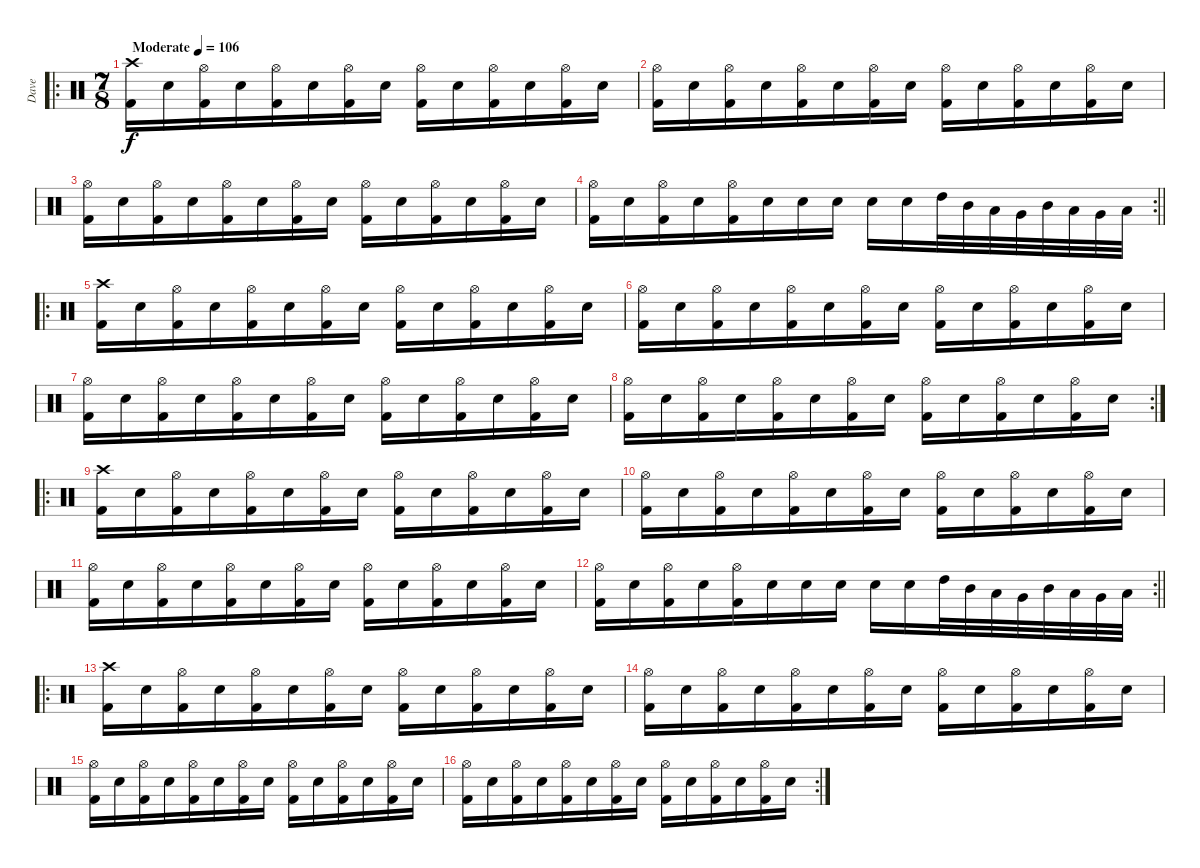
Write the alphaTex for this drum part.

\track ("Dave" "Dave") {instrument percussion}
\staff {score}
\articulation defaults
\ro
\ts (7 8)
\tempo (106 "Moderate")
\clef neutral
\ks c
("Crash high (hit)" "Kick (hit) 2").16{dy f} "Electric Snare (hit)".16 ("Hi-Hat (open)" "Kick (hit) 2").16 "Electric Snare (hit)".16 ("Hi-Hat (open)" "Kick (hit) 2").16 "Electric Snare (hit)".16 ("Hi-Hat (open)" "Kick (hit) 2").16 "Electric Snare (hit)".16 ("Hi-Hat (open)" "Kick (hit) 2").16 "Electric Snare (hit)".16 ("Hi-Hat (open)" "Kick (hit) 2").16 "Electric Snare (hit)".16 ("Hi-Hat (open)" "Kick (hit) 2").16 "Electric Snare (hit)".16 |
("Hi-Hat (open)" "Kick (hit) 2").16 "Electric Snare (hit)".16 ("Hi-Hat (open)" "Kick (hit) 2").16 "Electric Snare (hit)".16 ("Hi-Hat (open)" "Kick (hit) 2").16 "Electric Snare (hit)".16 ("Hi-Hat (open)" "Kick (hit) 2").16 "Electric Snare (hit)".16 ("Hi-Hat (open)" "Kick (hit) 2").16 "Electric Snare (hit)".16 ("Hi-Hat (open)" "Kick (hit) 2").16 "Electric Snare (hit)".16 ("Hi-Hat (open)" "Kick (hit) 2").16 "Electric Snare (hit)".16 |
("Hi-Hat (open)" "Kick (hit) 2").16 "Electric Snare (hit)".16 ("Hi-Hat (open)" "Kick (hit) 2").16 "Electric Snare (hit)".16 ("Hi-Hat (open)" "Kick (hit) 2").16 "Electric Snare (hit)".16 ("Hi-Hat (open)" "Kick (hit) 2").16 "Electric Snare (hit)".16 ("Hi-Hat (open)" "Kick (hit) 2").16 "Electric Snare (hit)".16 ("Hi-Hat (open)" "Kick (hit) 2").16 "Electric Snare (hit)".16 ("Hi-Hat (open)" "Kick (hit) 2").16 "Electric Snare (hit)".16 |
\rc 2
\barLineRight lightlight
("Hi-Hat (open)" "Kick (hit) 2").16 "Electric Snare (hit)".16 ("Hi-Hat (open)" "Kick (hit) 2").16 "Electric Snare (hit)".16 ("Hi-Hat (open)" "Kick (hit) 2").16 "Electric Snare (hit)".16 "Electric Snare (hit)".16 "Electric Snare (hit)".16 "Electric Snare (hit)".16 "Electric Snare (hit)".16 "High Tom (hit)".32 "Mid Tom (hit)".32 "Low Tom (hit)".32 "Very Low Tom (hit)".32 "Mid Tom (hit)".32 "Low Tom (hit)".32 "Very Low Tom (hit)".32 "Low Floor Tom (hit)".32 |
\ro
("Crash high (hit)" "Kick (hit) 2").16 "Electric Snare (hit)".16 ("Hi-Hat (open)" "Kick (hit) 2").16 "Electric Snare (hit)".16 ("Hi-Hat (open)" "Kick (hit) 2").16 "Electric Snare (hit)".16 ("Hi-Hat (open)" "Kick (hit) 2").16 "Electric Snare (hit)".16 ("Hi-Hat (open)" "Kick (hit) 2").16 "Electric Snare (hit)".16 ("Hi-Hat (open)" "Kick (hit) 2").16 "Electric Snare (hit)".16 ("Hi-Hat (open)" "Kick (hit) 2").16 "Electric Snare (hit)".16 |
("Hi-Hat (open)" "Kick (hit) 2").16 "Electric Snare (hit)".16 ("Hi-Hat (open)" "Kick (hit) 2").16 "Electric Snare (hit)".16 ("Hi-Hat (open)" "Kick (hit) 2").16 "Electric Snare (hit)".16 ("Hi-Hat (open)" "Kick (hit) 2").16 "Electric Snare (hit)".16 ("Hi-Hat (open)" "Kick (hit) 2").16 "Electric Snare (hit)".16 ("Hi-Hat (open)" "Kick (hit) 2").16 "Electric Snare (hit)".16 ("Hi-Hat (open)" "Kick (hit) 2").16 "Electric Snare (hit)".16 |
("Hi-Hat (open)" "Kick (hit) 2").16 "Electric Snare (hit)".16 ("Hi-Hat (open)" "Kick (hit) 2").16 "Electric Snare (hit)".16 ("Hi-Hat (open)" "Kick (hit) 2").16 "Electric Snare (hit)".16 ("Hi-Hat (open)" "Kick (hit) 2").16 "Electric Snare (hit)".16 ("Hi-Hat (open)" "Kick (hit) 2").16 "Electric Snare (hit)".16 ("Hi-Hat (open)" "Kick (hit) 2").16 "Electric Snare (hit)".16 ("Hi-Hat (open)" "Kick (hit) 2").16 "Electric Snare (hit)".16 |
\rc 2
("Hi-Hat (open)" "Kick (hit) 2").16 "Electric Snare (hit)".16 ("Hi-Hat (open)" "Kick (hit) 2").16 "Electric Snare (hit)".16 ("Hi-Hat (open)" "Kick (hit) 2").16 "Electric Snare (hit)".16 ("Hi-Hat (open)" "Kick (hit) 2").16 "Electric Snare (hit)".16 ("Hi-Hat (open)" "Kick (hit) 2").16 "Electric Snare (hit)".16 ("Hi-Hat (open)" "Kick (hit) 2").16 "Electric Snare (hit)".16 ("Hi-Hat (open)" "Kick (hit) 2").16 "Electric Snare (hit)".16 |
\ro
("Crash high (hit)" "Kick (hit) 2").16 "Electric Snare (hit)".16 ("Hi-Hat (open)" "Kick (hit) 2").16 "Electric Snare (hit)".16 ("Hi-Hat (open)" "Kick (hit) 2").16 "Electric Snare (hit)".16 ("Hi-Hat (open)" "Kick (hit) 2").16 "Electric Snare (hit)".16 ("Hi-Hat (open)" "Kick (hit) 2").16 "Electric Snare (hit)".16 ("Hi-Hat (open)" "Kick (hit) 2").16 "Electric Snare (hit)".16 ("Hi-Hat (open)" "Kick (hit) 2").16 "Electric Snare (hit)".16 |
("Hi-Hat (open)" "Kick (hit) 2").16 "Electric Snare (hit)".16 ("Hi-Hat (open)" "Kick (hit) 2").16 "Electric Snare (hit)".16 ("Hi-Hat (open)" "Kick (hit) 2").16 "Electric Snare (hit)".16 ("Hi-Hat (open)" "Kick (hit) 2").16 "Electric Snare (hit)".16 ("Hi-Hat (open)" "Kick (hit) 2").16 "Electric Snare (hit)".16 ("Hi-Hat (open)" "Kick (hit) 2").16 "Electric Snare (hit)".16 ("Hi-Hat (open)" "Kick (hit) 2").16 "Electric Snare (hit)".16 |
("Hi-Hat (open)" "Kick (hit) 2").16 "Electric Snare (hit)".16 ("Hi-Hat (open)" "Kick (hit) 2").16 "Electric Snare (hit)".16 ("Hi-Hat (open)" "Kick (hit) 2").16 "Electric Snare (hit)".16 ("Hi-Hat (open)" "Kick (hit) 2").16 "Electric Snare (hit)".16 ("Hi-Hat (open)" "Kick (hit) 2").16 "Electric Snare (hit)".16 ("Hi-Hat (open)" "Kick (hit) 2").16 "Electric Snare (hit)".16 ("Hi-Hat (open)" "Kick (hit) 2").16 "Electric Snare (hit)".16 |
\rc 2
\barLineRight lightlight
("Hi-Hat (open)" "Kick (hit) 2").16 "Electric Snare (hit)".16 ("Hi-Hat (open)" "Kick (hit) 2").16 "Electric Snare (hit)".16 ("Hi-Hat (open)" "Kick (hit) 2").16 "Electric Snare (hit)".16 "Electric Snare (hit)".16 "Electric Snare (hit)".16 "Electric Snare (hit)".16 "Electric Snare (hit)".16 "High Tom (hit)".32 "Mid Tom (hit)".32 "Low Tom (hit)".32 "Very Low Tom (hit)".32 "Mid Tom (hit)".32 "Low Tom (hit)".32 "Very Low Tom (hit)".32 "Low Floor Tom (hit)".32 |
\ro
("Crash high (hit)" "Kick (hit) 2").16 "Electric Snare (hit)".16 ("Hi-Hat (open)" "Kick (hit) 2").16 "Electric Snare (hit)".16 ("Hi-Hat (open)" "Kick (hit) 2").16 "Electric Snare (hit)".16 ("Hi-Hat (open)" "Kick (hit) 2").16 "Electric Snare (hit)".16 ("Hi-Hat (open)" "Kick (hit) 2").16 "Electric Snare (hit)".16 ("Hi-Hat (open)" "Kick (hit) 2").16 "Electric Snare (hit)".16 ("Hi-Hat (open)" "Kick (hit) 2").16 "Electric Snare (hit)".16 |
("Hi-Hat (open)" "Kick (hit) 2").16 "Electric Snare (hit)".16 ("Hi-Hat (open)" "Kick (hit) 2").16 "Electric Snare (hit)".16 ("Hi-Hat (open)" "Kick (hit) 2").16 "Electric Snare (hit)".16 ("Hi-Hat (open)" "Kick (hit) 2").16 "Electric Snare (hit)".16 ("Hi-Hat (open)" "Kick (hit) 2").16 "Electric Snare (hit)".16 ("Hi-Hat (open)" "Kick (hit) 2").16 "Electric Snare (hit)".16 ("Hi-Hat (open)" "Kick (hit) 2").16 "Electric Snare (hit)".16 |
("Hi-Hat (open)" "Kick (hit) 2").16 "Electric Snare (hit)".16 ("Hi-Hat (open)" "Kick (hit) 2").16 "Electric Snare (hit)".16 ("Hi-Hat (open)" "Kick (hit) 2").16 "Electric Snare (hit)".16 ("Hi-Hat (open)" "Kick (hit) 2").16 "Electric Snare (hit)".16 ("Hi-Hat (open)" "Kick (hit) 2").16 "Electric Snare (hit)".16 ("Hi-Hat (open)" "Kick (hit) 2").16 "Electric Snare (hit)".16 ("Hi-Hat (open)" "Kick (hit) 2").16 "Electric Snare (hit)".16 |
\rc 2
("Hi-Hat (open)" "Kick (hit) 2").16 "Electric Snare (hit)".16 ("Hi-Hat (open)" "Kick (hit) 2").16 "Electric Snare (hit)".16 ("Hi-Hat (open)" "Kick (hit) 2").16 "Electric Snare (hit)".16 ("Hi-Hat (open)" "Kick (hit) 2").16 "Electric Snare (hit)".16 ("Hi-Hat (open)" "Kick (hit) 2").16 "Electric Snare (hit)".16 ("Hi-Hat (open)" "Kick (hit) 2").16 "Electric Snare (hit)".16 ("Hi-Hat (open)" "Kick (hit) 2").16 "Electric Snare (hit)".16
